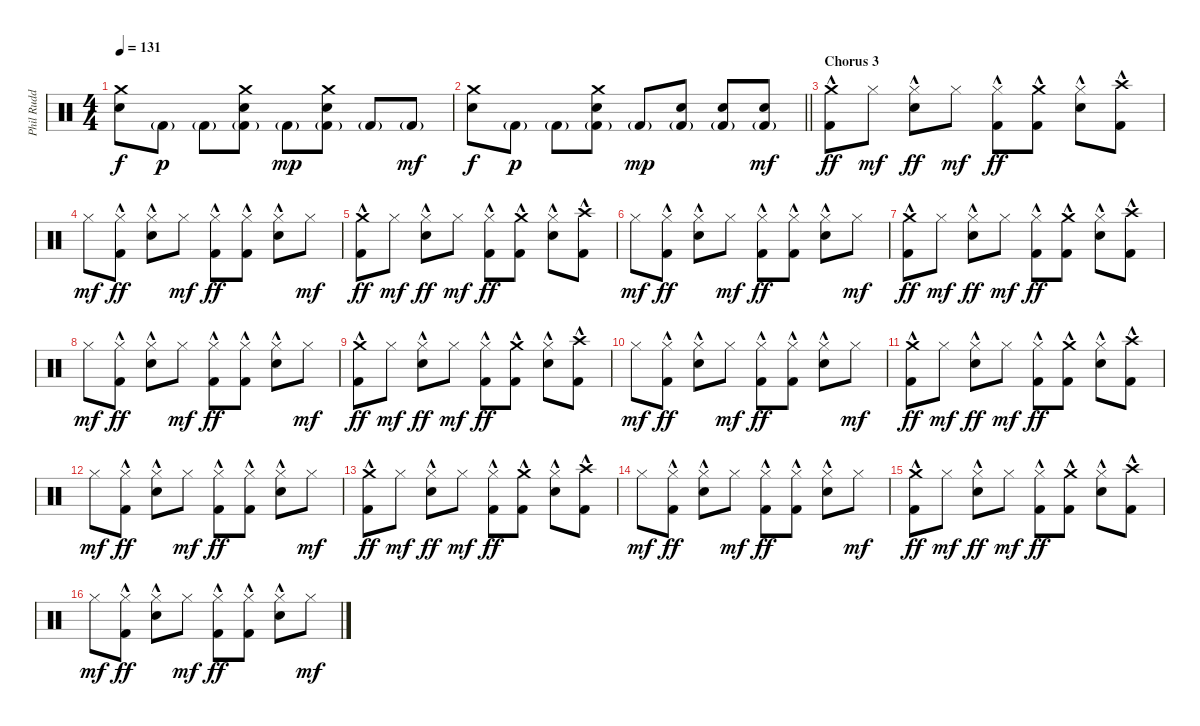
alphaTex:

\track ("Phil Rudd" "Phil Rudd") {instrument percussion}
\staff {score}
\articulation defaults
\ts (4 4)
\tempo 131
\clef neutral
\ks c
("Crash medium (hit)" "Electric Snare (hit)").8{dy f} "Kick (hit) 2"{g}.8{dy p} "Kick (hit) 2"{g}.8 ("Crash medium (hit)" "Electric Snare (hit)" "Kick (hit) 2"{g}).8 "Kick (hit) 2"{g}.8{dy mp} ("Crash medium (hit)" "Electric Snare (hit)" "Kick (hit) 2"{g}).8 "Kick (hit) 2"{g}.8 "Kick (hit) 2"{g}.8{dy mf} |
\barLineRight lightlight
("Crash medium (hit)" "Electric Snare (hit)").8{dy f} "Kick (hit) 2"{g}.8{dy p} "Kick (hit) 2"{g}.8 ("Crash medium (hit)" "Electric Snare (hit)" "Kick (hit) 2"{g}).8 "Kick (hit) 2"{g}.8{dy mp} ("Electric Snare (hit)" "Kick (hit) 2"{g}).8 ("Electric Snare (hit)" "Kick (hit) 2"{g}).8 ("Electric Snare (hit)" "Kick (hit) 2"{g}).8{dy mf} |
\section ("" "Chorus 3")
("Crash medium (hit)" "Kick (hit) 2"{hac}).8{dy ff} "Hi-Hat (closed)".8{dy mf} ("Hi-Hat (closed)" "Electric Snare (hit)"{hac}).8{dy ff} "Hi-Hat (closed)".8{dy mf} ("Hi-Hat (closed)" "Kick (hit) 2"{hac}).8{dy ff} ("Crash medium (hit)" "Kick (hit) 2"{hac}).8 ("Hi-Hat (closed)" "Electric Snare (hit)"{hac}).8 ("Crash high (hit)" "Kick (hit) 2"{hac}).8 |
"Hi-Hat (closed)".8{dy mf} ("Hi-Hat (closed)" "Kick (hit) 2"{hac}).8{dy ff} ("Hi-Hat (closed)" "Electric Snare (hit)"{hac}).8 "Hi-Hat (closed)".8{dy mf} ("Hi-Hat (closed)" "Kick (hit) 2"{hac}).8{dy ff} ("Hi-Hat (closed)" "Kick (hit) 2"{hac}).8 ("Hi-Hat (closed)" "Electric Snare (hit)"{hac}).8 "Hi-Hat (closed)".8{dy mf} |
("Crash medium (hit)" "Kick (hit) 2"{hac}).8{dy ff} "Hi-Hat (closed)".8{dy mf} ("Hi-Hat (closed)" "Electric Snare (hit)"{hac}).8{dy ff} "Hi-Hat (closed)".8{dy mf} ("Hi-Hat (closed)" "Kick (hit) 2"{hac}).8{dy ff} ("Crash medium (hit)" "Kick (hit) 2"{hac}).8 ("Hi-Hat (closed)" "Electric Snare (hit)"{hac}).8 ("Crash high (hit)" "Kick (hit) 2"{hac}).8 |
"Hi-Hat (closed)".8{dy mf} ("Hi-Hat (closed)" "Kick (hit) 2"{hac}).8{dy ff} ("Hi-Hat (closed)" "Electric Snare (hit)"{hac}).8 "Hi-Hat (closed)".8{dy mf} ("Hi-Hat (closed)" "Kick (hit) 2"{hac}).8{dy ff} ("Hi-Hat (closed)" "Kick (hit) 2"{hac}).8 ("Hi-Hat (closed)" "Electric Snare (hit)"{hac}).8 "Hi-Hat (closed)".8{dy mf} |
("Crash medium (hit)" "Kick (hit) 2"{hac}).8{dy ff} "Hi-Hat (closed)".8{dy mf} ("Hi-Hat (closed)" "Electric Snare (hit)"{hac}).8{dy ff} "Hi-Hat (closed)".8{dy mf} ("Hi-Hat (closed)" "Kick (hit) 2"{hac}).8{dy ff} ("Crash medium (hit)" "Kick (hit) 2"{hac}).8 ("Hi-Hat (closed)" "Electric Snare (hit)"{hac}).8 ("Crash high (hit)" "Kick (hit) 2"{hac}).8 |
"Hi-Hat (closed)".8{dy mf} ("Hi-Hat (closed)" "Kick (hit) 2"{hac}).8{dy ff} ("Hi-Hat (closed)" "Electric Snare (hit)"{hac}).8 "Hi-Hat (closed)".8{dy mf} ("Hi-Hat (closed)" "Kick (hit) 2"{hac}).8{dy ff} ("Hi-Hat (closed)" "Kick (hit) 2"{hac}).8 ("Hi-Hat (closed)" "Electric Snare (hit)"{hac}).8 "Hi-Hat (closed)".8{dy mf} |
("Crash medium (hit)" "Kick (hit) 2"{hac}).8{dy ff} "Hi-Hat (closed)".8{dy mf} ("Hi-Hat (closed)" "Electric Snare (hit)"{hac}).8{dy ff} "Hi-Hat (closed)".8{dy mf} ("Hi-Hat (closed)" "Kick (hit) 2"{hac}).8{dy ff} ("Crash medium (hit)" "Kick (hit) 2"{hac}).8 ("Hi-Hat (closed)" "Electric Snare (hit)"{hac}).8 ("Crash high (hit)" "Kick (hit) 2"{hac}).8 |
"Hi-Hat (closed)".8{dy mf} ("Hi-Hat (closed)" "Kick (hit) 2"{hac}).8{dy ff} ("Hi-Hat (closed)" "Electric Snare (hit)"{hac}).8 "Hi-Hat (closed)".8{dy mf} ("Hi-Hat (closed)" "Kick (hit) 2"{hac}).8{dy ff} ("Hi-Hat (closed)" "Kick (hit) 2"{hac}).8 ("Hi-Hat (closed)" "Electric Snare (hit)"{hac}).8 "Hi-Hat (closed)".8{dy mf} |
("Crash medium (hit)" "Kick (hit) 2"{hac}).8{dy ff} "Hi-Hat (closed)".8{dy mf} ("Hi-Hat (closed)" "Electric Snare (hit)"{hac}).8{dy ff} "Hi-Hat (closed)".8{dy mf} ("Hi-Hat (closed)" "Kick (hit) 2"{hac}).8{dy ff} ("Crash medium (hit)" "Kick (hit) 2"{hac}).8 ("Hi-Hat (closed)" "Electric Snare (hit)"{hac}).8 ("Crash high (hit)" "Kick (hit) 2"{hac}).8 |
"Hi-Hat (closed)".8{dy mf} ("Hi-Hat (closed)" "Kick (hit) 2"{hac}).8{dy ff} ("Hi-Hat (closed)" "Electric Snare (hit)"{hac}).8 "Hi-Hat (closed)".8{dy mf} ("Hi-Hat (closed)" "Kick (hit) 2"{hac}).8{dy ff} ("Hi-Hat (closed)" "Kick (hit) 2"{hac}).8 ("Hi-Hat (closed)" "Electric Snare (hit)"{hac}).8 "Hi-Hat (closed)".8{dy mf} |
("Crash medium (hit)" "Kick (hit) 2"{hac}).8{dy ff} "Hi-Hat (closed)".8{dy mf} ("Hi-Hat (closed)" "Electric Snare (hit)"{hac}).8{dy ff} "Hi-Hat (closed)".8{dy mf} ("Hi-Hat (closed)" "Kick (hit) 2"{hac}).8{dy ff} ("Crash medium (hit)" "Kick (hit) 2"{hac}).8 ("Hi-Hat (closed)" "Electric Snare (hit)"{hac}).8 ("Crash high (hit)" "Kick (hit) 2"{hac}).8 |
"Hi-Hat (closed)".8{dy mf} ("Hi-Hat (closed)" "Kick (hit) 2"{hac}).8{dy ff} ("Hi-Hat (closed)" "Electric Snare (hit)"{hac}).8 "Hi-Hat (closed)".8{dy mf} ("Hi-Hat (closed)" "Kick (hit) 2"{hac}).8{dy ff} ("Hi-Hat (closed)" "Kick (hit) 2"{hac}).8 ("Hi-Hat (closed)" "Electric Snare (hit)"{hac}).8 "Hi-Hat (closed)".8{dy mf} |
("Crash medium (hit)" "Kick (hit) 2"{hac}).8{dy ff} "Hi-Hat (closed)".8{dy mf} ("Hi-Hat (closed)" "Electric Snare (hit)"{hac}).8{dy ff} "Hi-Hat (closed)".8{dy mf} ("Hi-Hat (closed)" "Kick (hit) 2"{hac}).8{dy ff} ("Crash medium (hit)" "Kick (hit) 2"{hac}).8 ("Hi-Hat (closed)" "Electric Snare (hit)"{hac}).8 ("Crash high (hit)" "Kick (hit) 2"{hac}).8 |
"Hi-Hat (closed)".8{dy mf} ("Hi-Hat (closed)" "Kick (hit) 2"{hac}).8{dy ff} ("Hi-Hat (closed)" "Electric Snare (hit)"{hac}).8 "Hi-Hat (closed)".8{dy mf} ("Hi-Hat (closed)" "Kick (hit) 2"{hac}).8{dy ff} ("Hi-Hat (closed)" "Kick (hit) 2"{hac}).8 ("Hi-Hat (closed)" "Electric Snare (hit)"{hac}).8 "Hi-Hat (closed)".8{dy mf}
